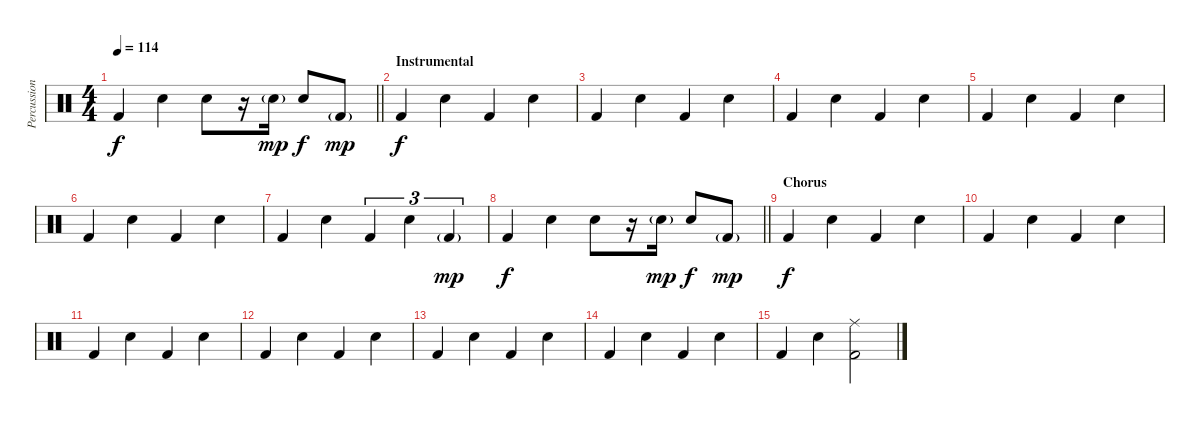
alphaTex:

\track ("Percussion" "Percussion") {instrument percussion}
\staff {score}
\articulation defaults
\ts (4 4)
\tempo 114
\clef neutral
\barLineRight lightlight
\ks c "Kick (hit) 2".4{dy f} "Snare (hit) 2".4 "Snare (hit) 2".8
r.16 "Snare (hit) 2"{g}.16{dy mp} "Snare (hit) 2".8{dy f} "Kick (hit) 2"{g}.8{dy mp} |
\section ("" "Instrumental")
"Kick (hit) 2".4{dy f} "Snare (hit) 2".4 "Kick (hit) 2".4 "Snare (hit) 2".4 |
"Kick (hit) 2".4 "Snare (hit) 2".4 "Kick (hit) 2".4 "Snare (hit) 2".4 |
"Kick (hit) 2".4 "Snare (hit) 2".4 "Kick (hit) 2".4 "Snare (hit) 2".4 |
"Kick (hit) 2".4 "Snare (hit) 2".4 "Kick (hit) 2".4 "Snare (hit) 2".4 |
"Kick (hit) 2".4 "Snare (hit) 2".4 "Kick (hit) 2".4 "Snare (hit) 2".4 |
"Kick (hit) 2".4 "Snare (hit) 2".4 "Kick (hit) 2".4{tu (3 2)} "Snare (hit) 2".4{tu (3 2)} "Kick (hit) 2"{g}.4{tu (3 2) dy mp} |
\barLineRight lightlight "Kick (hit) 2".4{dy f} "Snare (hit) 2".4 "Snare (hit) 2".8
r.16 "Snare (hit) 2"{g}.16{dy mp} "Snare (hit) 2".8{dy f} "Kick (hit) 2"{g}.8{dy mp} |
\section ("" "Chorus")
"Kick (hit) 2".4{dy f} "Snare (hit) 2".4 "Kick (hit) 2".4 "Snare (hit) 2".4 |
"Kick (hit) 2".4 "Snare (hit) 2".4 "Kick (hit) 2".4 "Snare (hit) 2".4 |
"Kick (hit) 2".4 "Snare (hit) 2".4 "Kick (hit) 2".4 "Snare (hit) 2".4 |
"Kick (hit) 2".4 "Snare (hit) 2".4 "Kick (hit) 2".4 "Snare (hit) 2".4 |
"Kick (hit) 2".4 "Snare (hit) 2".4 "Kick (hit) 2".4 "Snare (hit) 2".4 |
"Kick (hit) 2".4 "Snare (hit) 2".4 "Kick (hit) 2".4 "Snare (hit) 2".4 |
"Kick (hit) 2".4 "Snare (hit) 2".4 ("Ride (middle)" "Kick (hit) 2").2
